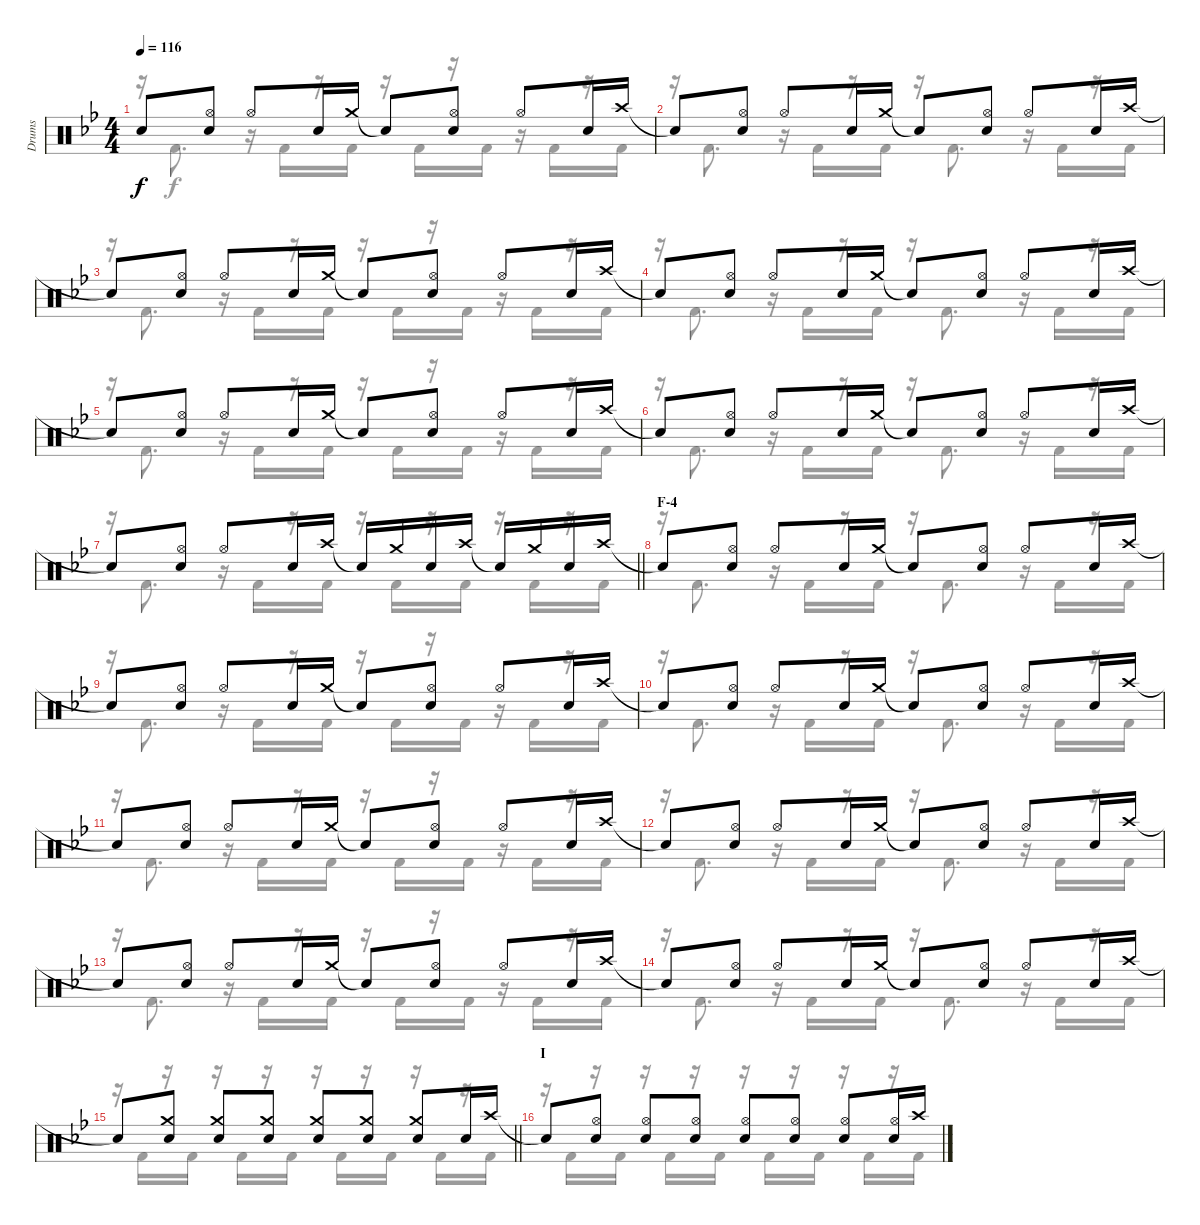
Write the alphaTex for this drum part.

\track ("Drums" "Drums") {instrument percussion}
\staff {score}
\articulation defaults
\voice
\ts (4 4)
\tempo 116
\clef neutral
\ks bb "Snare (hit)"{t}.8{dy f}
("Hi-Hat (open)" "Snare (hit) 2").8 "Hi-Hat (open)".8 "Snare (hit) 2".16 "Crash medium (hit)".16 "Snare (hit)"{t}.8 ("Hi-Hat (open)" "Snare (hit) 2").8 "Hi-Hat (open)".8 "Snare (hit) 2".16 "Crash high (hit)".16 |
"Snare (hit)"{t}.8 ("Hi-Hat (open)" "Snare (hit) 2").8 "Hi-Hat (open)".8 "Snare (hit) 2".16 "Crash medium (hit)".16 "Snare (hit)"{t}.8 ("Hi-Hat (open)" "Snare (hit) 2").8 "Hi-Hat (open)".8 "Snare (hit) 2".16 "Crash high (hit)".16 |
"Snare (hit)"{t}.8 ("Hi-Hat (open)" "Snare (hit) 2").8 "Hi-Hat (open)".8 "Snare (hit) 2".16 "Crash medium (hit)".16 "Snare (hit)"{t}.8 ("Hi-Hat (open)" "Snare (hit) 2").8 "Hi-Hat (open)".8 "Snare (hit) 2".16 "Crash high (hit)".16 |
"Snare (hit)"{t}.8 ("Hi-Hat (open)" "Snare (hit) 2").8 "Hi-Hat (open)".8 "Snare (hit) 2".16 "Crash medium (hit)".16 "Snare (hit)"{t}.8 ("Hi-Hat (open)" "Snare (hit) 2").8 "Hi-Hat (open)".8 "Snare (hit) 2".16 "Crash high (hit)".16 |
"Snare (hit)"{t}.8 ("Hi-Hat (open)" "Snare (hit) 2").8 "Hi-Hat (open)".8 "Snare (hit) 2".16 "Crash medium (hit)".16 "Snare (hit)"{t}.8 ("Hi-Hat (open)" "Snare (hit) 2").8 "Hi-Hat (open)".8 "Snare (hit) 2".16 "Crash high (hit)".16 |
"Snare (hit)"{t}.8 ("Hi-Hat (open)" "Snare (hit) 2").8 "Hi-Hat (open)".8 "Snare (hit) 2".16 "Crash medium (hit)".16 "Snare (hit)"{t}.8 ("Hi-Hat (open)" "Snare (hit) 2").8 "Hi-Hat (open)".8 "Snare (hit) 2".16 "Crash high (hit)".16 |
\barLineRight lightlight "Snare (hit)"{t}.8
("Hi-Hat (open)" "Snare (hit) 2").8 "Hi-Hat (open)".8 "Snare (hit) 2".16 "Crash high (hit)".16 "Snare (hit)"{t}.16 "Crash medium (hit)".16 "Snare (hit) 2".16 "Crash high (hit)".16 "Snare (hit)"{t}.16 "Crash medium (hit)".16 "Hand Clap (hit)".16 "Crash high (hit)".16 |
\section ("" "F-4")
"Snare (hit)"{t}.8 ("Hi-Hat (open)" "Snare (hit) 2").8 "Hi-Hat (open)".8 "Snare (hit) 2".16 "Crash medium (hit)".16 "Snare (hit)"{t}.8 ("Hi-Hat (open)" "Snare (hit) 2").8 "Hi-Hat (open)".8 "Snare (hit) 2".16 "Crash high (hit)".16 |
"Snare (hit)"{t}.8 ("Hi-Hat (open)" "Snare (hit) 2").8 "Hi-Hat (open)".8 "Snare (hit) 2".16 "Crash medium (hit)".16 "Snare (hit)"{t}.8 ("Hi-Hat (open)" "Snare (hit) 2").8 "Hi-Hat (open)".8 "Snare (hit) 2".16 "Crash high (hit)".16 |
"Snare (hit)"{t}.8 ("Hi-Hat (open)" "Snare (hit) 2").8 "Hi-Hat (open)".8 "Snare (hit) 2".16 "Crash medium (hit)".16 "Snare (hit)"{t}.8 ("Hi-Hat (open)" "Snare (hit) 2").8 "Hi-Hat (open)".8 "Snare (hit) 2".16 "Crash high (hit)".16 |
"Snare (hit)"{t}.8 ("Hi-Hat (open)" "Snare (hit) 2").8 "Hi-Hat (open)".8 "Snare (hit) 2".16 "Crash medium (hit)".16 "Snare (hit)"{t}.8 ("Hi-Hat (open)" "Snare (hit) 2").8 "Hi-Hat (open)".8 "Snare (hit) 2".16 "Crash high (hit)".16 |
"Snare (hit)"{t}.8 ("Hi-Hat (open)" "Snare (hit) 2").8 "Hi-Hat (open)".8 "Snare (hit) 2".16 "Crash medium (hit)".16 "Snare (hit)"{t}.8 ("Hi-Hat (open)" "Snare (hit) 2").8 "Hi-Hat (open)".8 "Snare (hit) 2".16 "Crash high (hit)".16 |
"Snare (hit)"{t}.8 ("Hi-Hat (open)" "Snare (hit) 2").8 "Hi-Hat (open)".8 "Snare (hit) 2".16 "Crash medium (hit)".16 "Snare (hit)"{t}.8 ("Hi-Hat (open)" "Snare (hit) 2").8 "Hi-Hat (open)".8 "Snare (hit) 2".16 "Crash high (hit)".16 |
"Snare (hit)"{t}.8 ("Hi-Hat (open)" "Snare (hit) 2").8 "Hi-Hat (open)".8 "Snare (hit) 2".16 "Crash medium (hit)".16 "Snare (hit)"{t}.8 ("Hi-Hat (open)" "Snare (hit) 2").8 "Hi-Hat (open)".8 "Snare (hit) 2".16 "Crash high (hit)".16 |
\barLineRight lightlight "Snare (hit)"{t}.8
("Crash medium (hit)" "Snare (hit) 2").8 ("Crash medium (hit)" "Snare (hit) 2").8 ("Crash medium (hit)" "Snare (hit) 2").8 ("Crash medium (hit)" "Snare (hit) 2").8 ("Crash medium (hit)" "Snare (hit) 2").8 ("Crash medium (hit)" "Snare (hit) 2").8 "Snare (hit) 2".16 "Crash high (hit)".16 |
\section ("" "I")
"Snare (hit)"{t}.8 ("Hi-Hat (open)" "Snare (hit) 2").8 ("Hi-Hat (open)" "Snare (hit) 2").8 ("Hi-Hat (open)" "Snare (hit) 2").8 ("Hi-Hat (open)" "Snare (hit) 2").8 ("Hi-Hat (open)" "Snare (hit) 2").8 ("Hi-Hat (open)" "Snare (hit) 2").8 ("Hi-Hat (open)" "Snare (hit) 2").16 "Crash high (hit)".16
\voice
\clef neutral
\ottava regular
\simile none
\ks bb
r.16{dy f} "Kick (hit) 2".8{d} r.16 "Kick (hit) 2".16 r.16 "Kick (hit) 2".16 r.16 "Kick (hit) 2".16 r.16 "Kick (hit) 2".16 r.16 "Kick (hit) 2".16 r.16 "Kick (hit) 2".16 |
r.16 "Kick (hit) 2".8{d} r.16 "Kick (hit) 2".16 r.16 "Kick (hit) 2".16 r.16 "Kick (hit) 2".8{d} r.16 "Kick (hit) 2".16 r.16 "Kick (hit) 2".16 |
r.16 "Kick (hit) 2".8{d} r.16 "Kick (hit) 2".16 r.16 "Kick (hit) 2".16 r.16 "Kick (hit) 2".16 r.16 "Kick (hit) 2".16 r.16 "Kick (hit) 2".16 r.16 "Kick (hit) 2".16 |
r.16 "Kick (hit) 2".8{d} r.16 "Kick (hit) 2".16 r.16 "Kick (hit) 2".16 r.16 "Kick (hit) 2".8{d} r.16 "Kick (hit) 2".16 r.16 "Kick (hit) 2".16 |
r.16 "Kick (hit) 2".8{d} r.16 "Kick (hit) 2".16 r.16 "Kick (hit) 2".16 r.16 "Kick (hit) 2".16 r.16 "Kick (hit) 2".16 r.16 "Kick (hit) 2".16 r.16 "Kick (hit) 2".16 |
r.16 "Kick (hit) 2".8{d} r.16 "Kick (hit) 2".16 r.16 "Kick (hit) 2".16 r.16 "Kick (hit) 2".8{d} r.16 "Kick (hit) 2".16 r.16 "Kick (hit) 2".16 |
\barLineRight lightlight
r.16 "Kick (hit) 2".8{d} r.16 "Kick (hit) 2".16 r.16 "Kick (hit) 2".16 r.16 "Kick (hit) 2".16 r.16 "Kick (hit) 2".16 r.16 "Kick (hit) 2".16 r.16 "Kick (hit) 2".16 |
r.16 "Kick (hit) 2".8{d} r.16 "Kick (hit) 2".16 r.16 "Kick (hit) 2".16 r.16 "Kick (hit) 2".8{d} r.16 "Kick (hit) 2".16 r.16 "Kick (hit) 2".16 |
r.16 "Kick (hit) 2".8{d} r.16 "Kick (hit) 2".16 r.16 "Kick (hit) 2".16 r.16 "Kick (hit) 2".16 r.16 "Kick (hit) 2".16 r.16 "Kick (hit) 2".16 r.16 "Kick (hit) 2".16 |
r.16 "Kick (hit) 2".8{d} r.16 "Kick (hit) 2".16 r.16 "Kick (hit) 2".16 r.16 "Kick (hit) 2".8{d} r.16 "Kick (hit) 2".16 r.16 "Kick (hit) 2".16 |
r.16 "Kick (hit) 2".8{d} r.16 "Kick (hit) 2".16 r.16 "Kick (hit) 2".16 r.16 "Kick (hit) 2".16 r.16 "Kick (hit) 2".16 r.16 "Kick (hit) 2".16 r.16 "Kick (hit) 2".16 |
r.16 "Kick (hit) 2".8{d} r.16 "Kick (hit) 2".16 r.16 "Kick (hit) 2".16 r.16 "Kick (hit) 2".8{d} r.16 "Kick (hit) 2".16 r.16 "Kick (hit) 2".16 |
r.16 "Kick (hit) 2".8{d} r.16 "Kick (hit) 2".16 r.16 "Kick (hit) 2".16 r.16 "Kick (hit) 2".16 r.16 "Kick (hit) 2".16 r.16 "Kick (hit) 2".16 r.16 "Kick (hit) 2".16 |
r.16 "Kick (hit) 2".8{d} r.16 "Kick (hit) 2".16 r.16 "Kick (hit) 2".16 r.16 "Kick (hit) 2".8{d} r.16 "Kick (hit) 2".16 r.16 "Kick (hit) 2".16 |
\barLineRight lightlight
r.16 "Kick (hit) 2".16 r.16 "Kick (hit) 2".16 r.16 "Kick (hit) 2".16 r.16 "Kick (hit) 2".16 r.16 "Kick (hit) 2".16 r.16 "Kick (hit) 2".16 r.16 "Kick (hit) 2".16 r.16 "Kick (hit) 2".16 |
r.16 "Kick (hit) 2".16 r.16 "Kick (hit) 2".16 r.16 "Kick (hit) 2".16 r.16 "Kick (hit) 2".16 r.16 "Kick (hit) 2".16 r.16 "Kick (hit) 2".16 r.16 "Kick (hit) 2".16 r.16 "Kick (hit) 2".16
